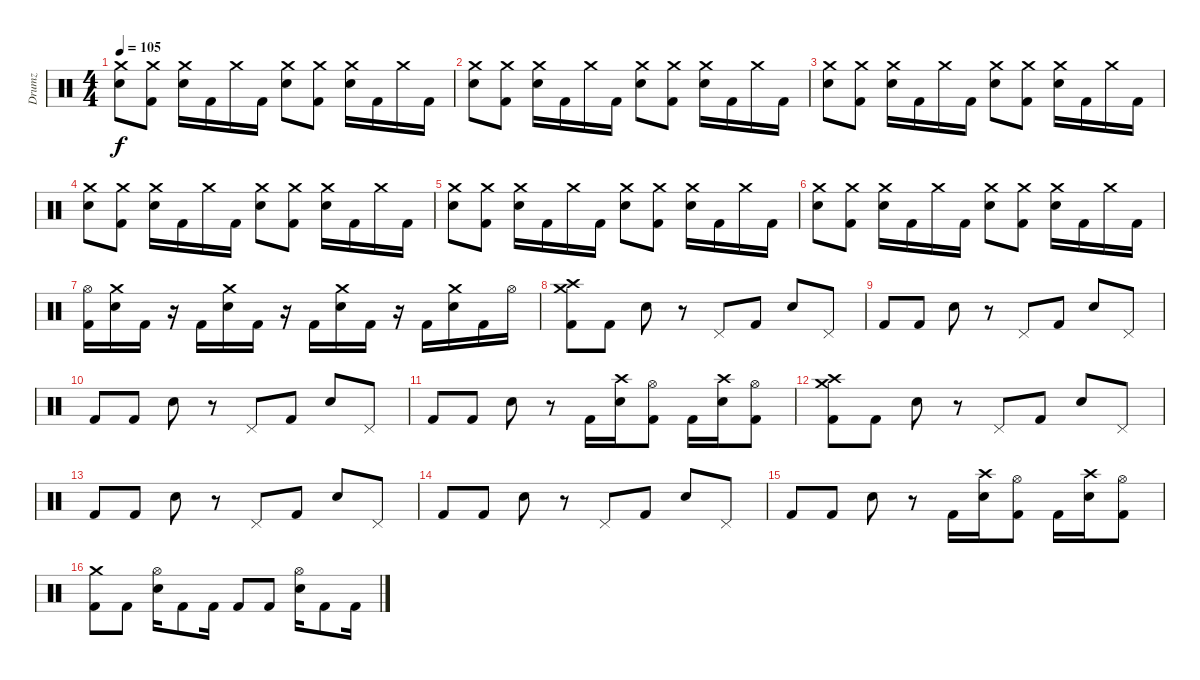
\track ("Drumz" "Drumz") {instrument percussion}
\staff {score}
\articulation defaults
\ts (4 4)
\tempo 105
\clef neutral
\ks c
("Crash medium (hit)" "Electric Snare (hit)").8{dy f} ("Crash medium (hit)" "Kick (hit) 2").8 ("Crash medium (hit)" "Electric Snare (hit)").16 "Kick (hit) 2".16 "Crash medium (hit)".16 "Kick (hit) 2".16 ("Crash medium (hit)" "Electric Snare (hit)").8 ("Crash medium (hit)" "Kick (hit) 2").8 ("Crash medium (hit)" "Electric Snare (hit)").16 "Kick (hit) 2".16 "Crash medium (hit)".16 "Kick (hit) 2".16 |
("Crash medium (hit)" "Electric Snare (hit)").8 ("Crash medium (hit)" "Kick (hit) 2").8 ("Crash medium (hit)" "Electric Snare (hit)").16 "Kick (hit) 2".16 "Crash medium (hit)".16 "Kick (hit) 2".16 ("Crash medium (hit)" "Electric Snare (hit)").8 ("Crash medium (hit)" "Kick (hit) 2").8 ("Crash medium (hit)" "Electric Snare (hit)").16 "Kick (hit) 2".16 "Crash medium (hit)".16 "Kick (hit) 2".16 |
("Crash medium (hit)" "Electric Snare (hit)").8 ("Crash medium (hit)" "Kick (hit) 2").8 ("Crash medium (hit)" "Electric Snare (hit)").16 "Kick (hit) 2".16 "Crash medium (hit)".16 "Kick (hit) 2".16 ("Crash medium (hit)" "Electric Snare (hit)").8 ("Crash medium (hit)" "Kick (hit) 2").8 ("Crash medium (hit)" "Electric Snare (hit)").16 "Kick (hit) 2".16 "Crash medium (hit)".16 "Kick (hit) 2".16 |
("Crash medium (hit)" "Electric Snare (hit)").8 ("Crash medium (hit)" "Kick (hit) 2").8 ("Crash medium (hit)" "Electric Snare (hit)").16 "Kick (hit) 2".16 "Crash medium (hit)".16 "Kick (hit) 2".16 ("Crash medium (hit)" "Electric Snare (hit)").8 ("Crash medium (hit)" "Kick (hit) 2").8 ("Crash medium (hit)" "Electric Snare (hit)").16 "Kick (hit) 2".16 "Crash medium (hit)".16 "Kick (hit) 2".16 |
("Crash medium (hit)" "Electric Snare (hit)").8 ("Crash medium (hit)" "Kick (hit) 2").8 ("Crash medium (hit)" "Electric Snare (hit)").16 "Kick (hit) 2".16 "Crash medium (hit)".16 "Kick (hit) 2".16 ("Crash medium (hit)" "Electric Snare (hit)").8 ("Crash medium (hit)" "Kick (hit) 2").8 ("Crash medium (hit)" "Electric Snare (hit)").16 "Kick (hit) 2".16 "Crash medium (hit)".16 "Kick (hit) 2".16 |
("Crash medium (hit)" "Electric Snare (hit)").8 ("Crash medium (hit)" "Kick (hit) 2").8 ("Crash medium (hit)" "Electric Snare (hit)").16 "Kick (hit) 2".16 "Crash medium (hit)".16 "Kick (hit) 2".16 ("Crash medium (hit)" "Electric Snare (hit)").8 ("Crash medium (hit)" "Kick (hit) 2").8 ("Crash medium (hit)" "Electric Snare (hit)").16 "Kick (hit) 2".16 "Crash medium (hit)".16 "Kick (hit) 2".16 |
("Hi-Hat (open)" "Kick (hit) 2").16 ("Crash medium (hit)" "Electric Snare (hit)").16 "Kick (hit) 2".16 r.16 "Kick (hit) 2".16 ("Crash medium (hit)" "Electric Snare (hit)").16 "Kick (hit) 2".16 r.16 "Kick (hit) 2".16 ("Crash medium (hit)" "Electric Snare (hit)").16 "Kick (hit) 2".16 r.16 "Kick (hit) 2".16 ("Crash medium (hit)" "Electric Snare (hit)").16 "Kick (hit) 2".16 "Hi-Hat (open)".16 |
("Crash medium (hit)" "Crash high (hit)" "Kick (hit) 2").8 "Kick (hit) 2".8 "Electric Snare (hit)".8 r.8 "Pedal Hi-Hat (hit)".8 "Kick (hit) 2".8 "Electric Snare (hit)".8 "Pedal Hi-Hat (hit)".8 |
"Kick (hit) 2".8 "Kick (hit) 2".8 "Electric Snare (hit)".8 r.8 "Pedal Hi-Hat (hit)".8 "Kick (hit) 2".8 "Electric Snare (hit)".8 "Pedal Hi-Hat (hit)".8 |
"Kick (hit) 2".8 "Kick (hit) 2".8 "Electric Snare (hit)".8 r.8 "Pedal Hi-Hat (hit)".8 "Kick (hit) 2".8 "Electric Snare (hit)".8 "Pedal Hi-Hat (hit)".8 |
"Kick (hit) 2".8 "Kick (hit) 2".8 "Electric Snare (hit)".8 r.8 "Kick (hit) 2".16 ("Crash high (hit)" "Electric Snare (hit)").16 ("Hi-Hat (open)" "Kick (hit) 2").8 "Kick (hit) 2".16 ("Crash high (hit)" "Electric Snare (hit)").16 ("Hi-Hat (open)" "Kick (hit) 2").8 |
("Crash medium (hit)" "Crash high (hit)" "Kick (hit) 2").8 "Kick (hit) 2".8 "Electric Snare (hit)".8 r.8 "Pedal Hi-Hat (hit)".8 "Kick (hit) 2".8 "Electric Snare (hit)".8 "Pedal Hi-Hat (hit)".8 |
"Kick (hit) 2".8 "Kick (hit) 2".8 "Electric Snare (hit)".8 r.8 "Pedal Hi-Hat (hit)".8 "Kick (hit) 2".8 "Electric Snare (hit)".8 "Pedal Hi-Hat (hit)".8 |
"Kick (hit) 2".8 "Kick (hit) 2".8 "Electric Snare (hit)".8 r.8 "Pedal Hi-Hat (hit)".8 "Kick (hit) 2".8 "Electric Snare (hit)".8 "Pedal Hi-Hat (hit)".8 |
"Kick (hit) 2".8 "Kick (hit) 2".8 "Electric Snare (hit)".8 r.8 "Kick (hit) 2".16 ("Crash high (hit)" "Electric Snare (hit)").16 ("Hi-Hat (open)" "Kick (hit) 2").8 "Kick (hit) 2".16 ("Crash high (hit)" "Electric Snare (hit)").16 ("Hi-Hat (open)" "Kick (hit) 2").8 |
("Crash medium (hit)" "Kick (hit) 2").8 "Kick (hit) 2".8 ("Hi-Hat (open)" "Electric Snare (hit)").16 "Kick (hit) 2".8 "Kick (hit) 2".16 "Kick (hit) 2".8 "Kick (hit) 2".8 ("Hi-Hat (open)" "Electric Snare (hit)").16 "Kick (hit) 2".8 "Kick (hit) 2".16
